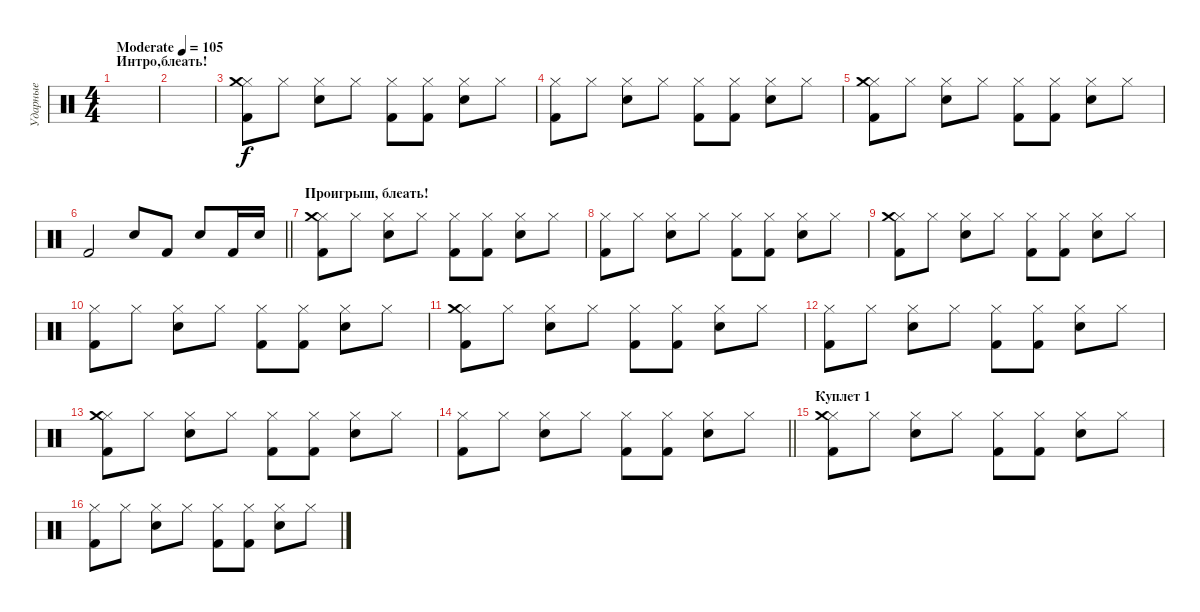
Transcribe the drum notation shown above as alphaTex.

\track ("Ударные" "Ударные") {instrument percussion}
\staff {score}
\articulation defaults
\ts (4 4)
\section ("" "Интро,блеать!")
\tempo (105 "Moderate")
\clef neutral
\ks c
|
|
("Hi-Hat (closed)" "Kick (hit) 2" "Crash medium (hit)").8 "Hi-Hat (closed)".8 ("Hi-Hat (closed)" "Electric Snare (hit)").8 "Hi-Hat (closed)".8 ("Hi-Hat (closed)" "Kick (hit) 2").8 ("Hi-Hat (closed)" "Kick (hit) 2").8 ("Hi-Hat (closed)" "Electric Snare (hit)").8 "Hi-Hat (closed)".8 |
("Hi-Hat (closed)" "Kick (hit) 2").8 "Hi-Hat (closed)".8 ("Hi-Hat (closed)" "Electric Snare (hit)").8 "Hi-Hat (closed)".8 ("Hi-Hat (closed)" "Kick (hit) 2").8 ("Hi-Hat (closed)" "Kick (hit) 2").8 ("Hi-Hat (closed)" "Electric Snare (hit)").8 "Hi-Hat (closed)".8 |
("Hi-Hat (closed)" "Kick (hit) 2" "Crash medium (hit)").8 "Hi-Hat (closed)".8 ("Hi-Hat (closed)" "Electric Snare (hit)").8 "Hi-Hat (closed)".8 ("Hi-Hat (closed)" "Kick (hit) 2").8 ("Hi-Hat (closed)" "Kick (hit) 2").8 ("Hi-Hat (closed)" "Electric Snare (hit)").8 "Hi-Hat (closed)".8 |
\barLineRight lightlight "Kick (hit) 2".2 "Electric Snare (hit)".8 "Kick (hit) 2".8 "Electric Snare (hit)".8 "Kick (hit) 2".16 "Electric Snare (hit)".16
|
\section ("" "Проигрыш, блеать!")
("Hi-Hat (closed)" "Kick (hit) 2" "Crash medium (hit)").8 "Hi-Hat (closed)".8 ("Hi-Hat (closed)" "Electric Snare (hit)").8 "Hi-Hat (closed)".8 ("Hi-Hat (closed)" "Kick (hit) 2").8 ("Hi-Hat (closed)" "Kick (hit) 2").8 ("Hi-Hat (closed)" "Electric Snare (hit)").8 "Hi-Hat (closed)".8 |
("Hi-Hat (closed)" "Kick (hit) 2").8 "Hi-Hat (closed)".8 ("Hi-Hat (closed)" "Electric Snare (hit)").8 "Hi-Hat (closed)".8 ("Hi-Hat (closed)" "Kick (hit) 2").8 ("Hi-Hat (closed)" "Kick (hit) 2").8 ("Hi-Hat (closed)" "Electric Snare (hit)").8 "Hi-Hat (closed)".8 |
("Hi-Hat (closed)" "Kick (hit) 2" "Crash medium (hit)").8 "Hi-Hat (closed)".8 ("Hi-Hat (closed)" "Electric Snare (hit)").8 "Hi-Hat (closed)".8 ("Hi-Hat (closed)" "Kick (hit) 2").8 ("Hi-Hat (closed)" "Kick (hit) 2").8 ("Hi-Hat (closed)" "Electric Snare (hit)").8 "Hi-Hat (closed)".8 |
("Hi-Hat (closed)" "Kick (hit) 2").8 "Hi-Hat (closed)".8 ("Hi-Hat (closed)" "Electric Snare (hit)").8 "Hi-Hat (closed)".8 ("Hi-Hat (closed)" "Kick (hit) 2").8 ("Hi-Hat (closed)" "Kick (hit) 2").8 ("Hi-Hat (closed)" "Electric Snare (hit)").8 "Hi-Hat (closed)".8 |
("Hi-Hat (closed)" "Kick (hit) 2" "Crash medium (hit)").8 "Hi-Hat (closed)".8 ("Hi-Hat (closed)" "Electric Snare (hit)").8 "Hi-Hat (closed)".8 ("Hi-Hat (closed)" "Kick (hit) 2").8 ("Hi-Hat (closed)" "Kick (hit) 2").8 ("Hi-Hat (closed)" "Electric Snare (hit)").8 "Hi-Hat (closed)".8 |
("Hi-Hat (closed)" "Kick (hit) 2").8 "Hi-Hat (closed)".8 ("Hi-Hat (closed)" "Electric Snare (hit)").8 "Hi-Hat (closed)".8 ("Hi-Hat (closed)" "Kick (hit) 2").8 ("Hi-Hat (closed)" "Kick (hit) 2").8 ("Hi-Hat (closed)" "Electric Snare (hit)").8 "Hi-Hat (closed)".8 |
("Hi-Hat (closed)" "Kick (hit) 2" "Crash medium (hit)").8 "Hi-Hat (closed)".8 ("Hi-Hat (closed)" "Electric Snare (hit)").8 "Hi-Hat (closed)".8 ("Hi-Hat (closed)" "Kick (hit) 2").8 ("Hi-Hat (closed)" "Kick (hit) 2").8 ("Hi-Hat (closed)" "Electric Snare (hit)").8 "Hi-Hat (closed)".8 |
\barLineRight lightlight
("Hi-Hat (closed)" "Kick (hit) 2").8 "Hi-Hat (closed)".8 ("Hi-Hat (closed)" "Electric Snare (hit)").8 "Hi-Hat (closed)".8 ("Hi-Hat (closed)" "Kick (hit) 2").8 ("Hi-Hat (closed)" "Kick (hit) 2").8 ("Hi-Hat (closed)" "Electric Snare (hit)").8 "Hi-Hat (closed)".8 |
\section ("" "Куплет 1")
("Hi-Hat (closed)" "Kick (hit) 2" "Crash medium (hit)").8 "Hi-Hat (closed)".8 ("Hi-Hat (closed)" "Electric Snare (hit)").8 "Hi-Hat (closed)".8 ("Hi-Hat (closed)" "Kick (hit) 2").8 ("Hi-Hat (closed)" "Kick (hit) 2").8 ("Hi-Hat (closed)" "Electric Snare (hit)").8 "Hi-Hat (closed)".8 |
("Hi-Hat (closed)" "Kick (hit) 2").8 "Hi-Hat (closed)".8 ("Hi-Hat (closed)" "Electric Snare (hit)").8 "Hi-Hat (closed)".8 ("Hi-Hat (closed)" "Kick (hit) 2").8 ("Hi-Hat (closed)" "Kick (hit) 2").8 ("Hi-Hat (closed)" "Electric Snare (hit)").8 "Hi-Hat (closed)".8
